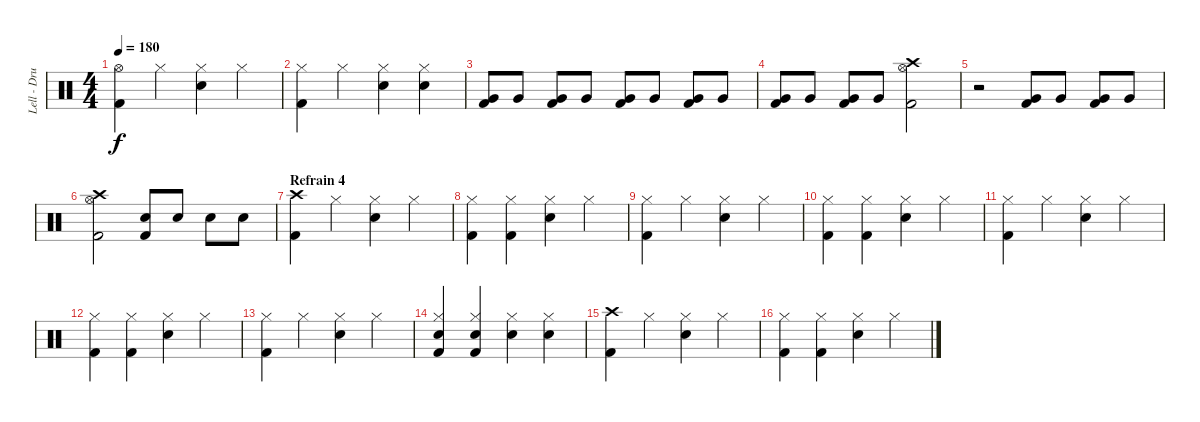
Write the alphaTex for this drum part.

\track ("Lell - Drums" "Lell - Dru") {instrument percussion}
\staff {score}
\articulation defaults
\ts (4 4)
\tempo 180
\clef neutral
\ks c
("Hi-Hat (open)" "Kick (hit) 2").4{dy f} "Hi-Hat (closed)".4 ("Hi-Hat (closed)" "Snare (hit) 2").4 "Hi-Hat (closed)".4 |
("Hi-Hat (closed)" "Kick (hit) 2").4 "Hi-Hat (closed)".4 ("Hi-Hat (closed)" "Snare (hit) 2").4 ("Hi-Hat (closed)" "Snare (hit) 2").4 |
("Very Low Tom (hit)" "Kick (hit) 2").8 "Very Low Tom (hit)".8 ("Very Low Tom (hit)" "Kick (hit) 2").8 "Very Low Tom (hit)".8 ("Very Low Tom (hit)" "Kick (hit) 2").8 "Very Low Tom (hit)".8 ("Very Low Tom (hit)" "Kick (hit) 2").8 "Very Low Tom (hit)".8 |
("Very Low Tom (hit)" "Kick (hit) 2").8 "Very Low Tom (hit)".8 ("Very Low Tom (hit)" "Kick (hit) 2").8 "Very Low Tom (hit)".8 ("Crash high (hit)" "Hi-Hat (open)" "Kick (hit) 2").2 |
r.2 ("Very Low Tom (hit)" "Kick (hit) 2").8 "Very Low Tom (hit)".8 ("Very Low Tom (hit)" "Kick (hit) 2").8 "Very Low Tom (hit)".8 |
("Crash high (hit)" "Hi-Hat (open)" "Kick (hit) 2").2 ("Snare (hit) 2" "Kick (hit) 2").8 "Snare (hit) 2".8 "Snare (hit) 2".8 "Snare (hit) 2".8 |
\section ("" "Refrain 4")
("Crash high (hit)" "Kick (hit) 2").4 "Hi-Hat (closed)".4 ("Hi-Hat (closed)" "Snare (hit) 2").4 "Hi-Hat (closed)".4 |
("Hi-Hat (closed)" "Kick (hit) 2").4 ("Hi-Hat (closed)" "Kick (hit) 2").4 ("Hi-Hat (closed)" "Snare (hit) 2").4 "Hi-Hat (closed)".4 |
("Hi-Hat (closed)" "Kick (hit) 2").4 "Hi-Hat (closed)".4 ("Hi-Hat (closed)" "Snare (hit) 2").4 "Hi-Hat (closed)".4 |
("Hi-Hat (closed)" "Kick (hit) 2").4 ("Hi-Hat (closed)" "Kick (hit) 2").4 ("Hi-Hat (closed)" "Snare (hit) 2").4 "Hi-Hat (closed)".4 |
("Hi-Hat (closed)" "Kick (hit) 2").4 "Hi-Hat (closed)".4 ("Hi-Hat (closed)" "Snare (hit) 2").4 "Hi-Hat (closed)".4 |
("Hi-Hat (closed)" "Kick (hit) 2").4 ("Hi-Hat (closed)" "Kick (hit) 2").4 ("Hi-Hat (closed)" "Snare (hit) 2").4 "Hi-Hat (closed)".4 |
("Hi-Hat (closed)" "Kick (hit) 2").4 "Hi-Hat (closed)".4 ("Hi-Hat (closed)" "Snare (hit) 2").4 "Hi-Hat (closed)".4 |
("Hi-Hat (closed)" "Snare (hit) 2" "Kick (hit) 2").4 ("Hi-Hat (closed)" "Snare (hit) 2" "Kick (hit) 2").4 ("Hi-Hat (closed)" "Snare (hit) 2").4 ("Hi-Hat (closed)" "Snare (hit) 2").4 |
("Crash high (hit)" "Kick (hit) 2").4 "Hi-Hat (closed)".4 ("Hi-Hat (closed)" "Snare (hit) 2").4 "Hi-Hat (closed)".4 |
("Hi-Hat (closed)" "Kick (hit) 2").4 ("Hi-Hat (closed)" "Kick (hit) 2").4 ("Hi-Hat (closed)" "Snare (hit) 2").4 "Hi-Hat (closed)".4
